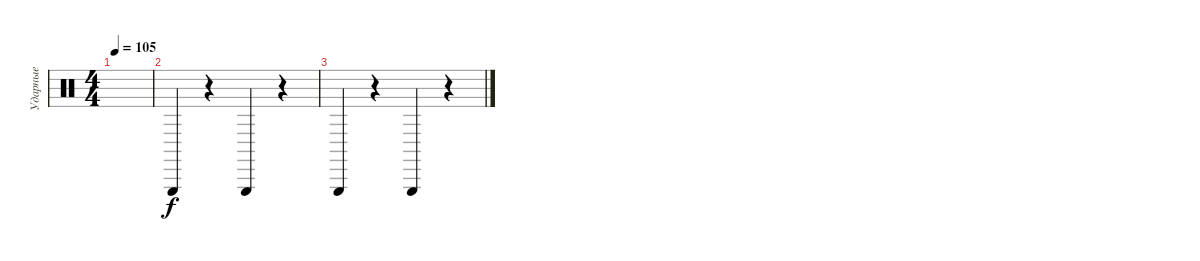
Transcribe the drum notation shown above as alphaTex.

\track ("Ударные" "Ударные") {instrument percussion}
\staff {score}
\articulation defaults
\ts (4 4)
\tempo 105
\clef neutral
\ks c
|
"Triangle (hit)".4 r.4 "Triangle (hit)".4 r.4 |
"Triangle (hit)".4 r.4 "Triangle (hit)".4 r.4
